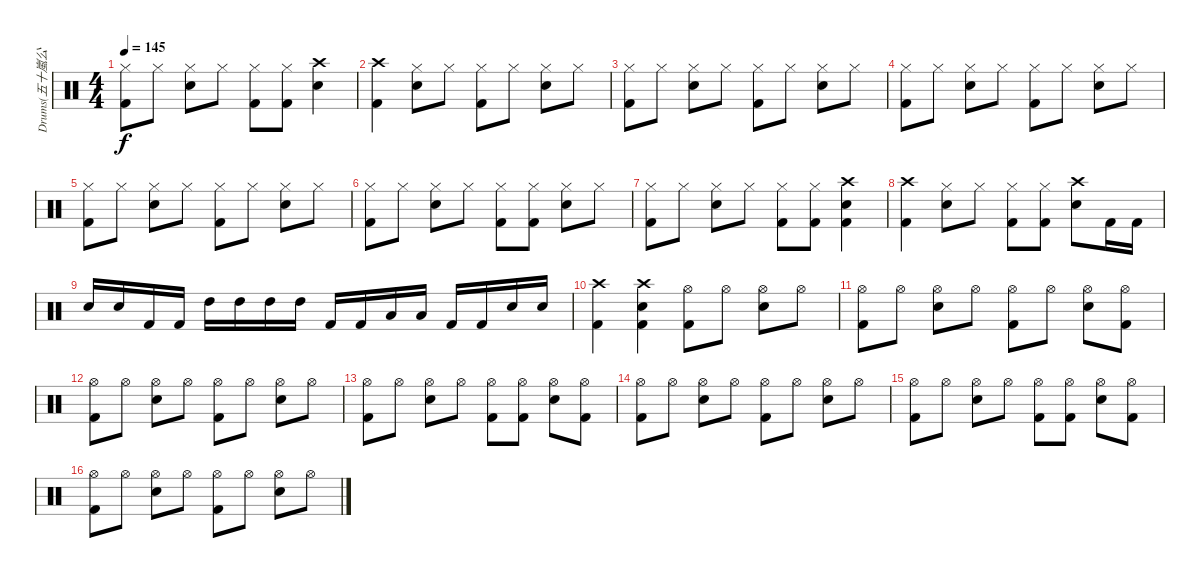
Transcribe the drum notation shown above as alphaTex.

\track ("Drums(五十嵐公太)" "Drums(五十嵐公") {instrument percussion}
\staff {score}
\articulation defaults
\ts (4 4)
\tempo 145
\clef neutral
\ks c
("Hi-Hat (closed)" "Kick (hit) 2").8{dy f} "Hi-Hat (closed)".8 ("Hi-Hat (closed)" "Snare (hit) 2").8 "Hi-Hat (closed)".8 ("Hi-Hat (closed)" "Kick (hit) 2").8 ("Hi-Hat (closed)" "Kick (hit) 2").8 ("Crash high (hit)" "Snare (hit) 2").4 |
("Crash high (hit)" "Kick (hit) 2").4 ("Hi-Hat (closed)" "Snare (hit) 2").8 "Hi-Hat (closed)".8 ("Hi-Hat (closed)" "Kick (hit) 2").8 "Hi-Hat (closed)".8 ("Hi-Hat (closed)" "Snare (hit) 2").8 "Hi-Hat (closed)".8 |
("Hi-Hat (closed)" "Kick (hit) 2").8 "Hi-Hat (closed)".8 ("Hi-Hat (closed)" "Snare (hit) 2").8 "Hi-Hat (closed)".8 ("Hi-Hat (closed)" "Kick (hit) 2").8 "Hi-Hat (closed)".8 ("Hi-Hat (closed)" "Snare (hit) 2").8 "Hi-Hat (closed)".8 |
("Hi-Hat (closed)" "Kick (hit) 2").8 "Hi-Hat (closed)".8 ("Hi-Hat (closed)" "Snare (hit) 2").8 "Hi-Hat (closed)".8 ("Hi-Hat (closed)" "Kick (hit) 2").8 "Hi-Hat (closed)".8 ("Hi-Hat (closed)" "Snare (hit) 2").8 "Hi-Hat (closed)".8 |
("Hi-Hat (closed)" "Kick (hit) 2").8 "Hi-Hat (closed)".8 ("Hi-Hat (closed)" "Snare (hit) 2").8 "Hi-Hat (closed)".8 ("Hi-Hat (closed)" "Kick (hit) 2").8 "Hi-Hat (closed)".8 ("Hi-Hat (closed)" "Snare (hit) 2").8 "Hi-Hat (closed)".8 |
("Hi-Hat (closed)" "Kick (hit) 2").8 "Hi-Hat (closed)".8 ("Hi-Hat (closed)" "Snare (hit) 2").8 "Hi-Hat (closed)".8 ("Hi-Hat (closed)" "Kick (hit) 2").8 ("Hi-Hat (closed)" "Kick (hit) 2").8 ("Hi-Hat (closed)" "Snare (hit) 2").8 "Hi-Hat (closed)".8 |
("Hi-Hat (closed)" "Kick (hit) 2").8 "Hi-Hat (closed)".8 ("Hi-Hat (closed)" "Snare (hit) 2").8 "Hi-Hat (closed)".8 ("Hi-Hat (closed)" "Kick (hit) 2").8 ("Hi-Hat (closed)" "Kick (hit) 2").8 ("Crash high (hit)" "Snare (hit) 2" "Kick (hit) 2").4 |
("Crash high (hit)" "Kick (hit) 2").4 ("Hi-Hat (closed)" "Snare (hit) 2").8 "Hi-Hat (closed)".8 ("Hi-Hat (closed)" "Kick (hit) 2").8 ("Hi-Hat (closed)" "Kick (hit) 2").8 ("Crash high (hit)" "Snare (hit) 2").8 "Kick (hit) 2".16 "Kick (hit) 2".16 |
"Snare (hit) 2".16 "Snare (hit) 2".16 "Kick (hit) 2".16 "Kick (hit) 2".16 "High Tom (hit)".16 "High Tom (hit)".16 "High Tom (hit)".16 "High Tom (hit)".16 "Kick (hit) 2".16 "Kick (hit) 2".16 "Low Tom (hit)".16 "Low Tom (hit)".16 "Kick (hit) 2".16 "Kick (hit) 2".16 "Snare (hit) 2".16 "Snare (hit) 2".16 |
("Crash high (hit)" "Kick (hit) 2").4 ("Crash high (hit)" "Snare (hit) 2" "Kick (hit) 2").4 ("Hi-Hat (open)" "Kick (hit) 2").8 "Hi-Hat (open)".8 ("Hi-Hat (open)" "Snare (hit) 2").8 "Hi-Hat (open)".8 |
("Hi-Hat (open)" "Kick (hit) 2").8 "Hi-Hat (open)".8 ("Hi-Hat (open)" "Snare (hit) 2").8 "Hi-Hat (open)".8 ("Hi-Hat (open)" "Kick (hit) 2").8 "Hi-Hat (open)".8 ("Hi-Hat (open)" "Snare (hit) 2").8 ("Hi-Hat (open)" "Kick (hit) 2").8 |
("Hi-Hat (open)" "Kick (hit) 2").8 "Hi-Hat (open)".8 ("Hi-Hat (open)" "Snare (hit) 2").8 "Hi-Hat (open)".8 ("Hi-Hat (open)" "Kick (hit) 2").8 "Hi-Hat (open)".8 ("Hi-Hat (open)" "Snare (hit) 2").8 "Hi-Hat (open)".8 |
("Hi-Hat (open)" "Kick (hit) 2").8 "Hi-Hat (open)".8 ("Hi-Hat (open)" "Snare (hit) 2").8 "Hi-Hat (open)".8 ("Hi-Hat (open)" "Kick (hit) 2").8 ("Hi-Hat (open)" "Kick (hit) 2").8 ("Hi-Hat (open)" "Snare (hit) 2").8 ("Hi-Hat (open)" "Kick (hit) 2").8 |
("Hi-Hat (open)" "Kick (hit) 2").8 "Hi-Hat (open)".8 ("Hi-Hat (open)" "Snare (hit) 2").8 "Hi-Hat (open)".8 ("Hi-Hat (open)" "Kick (hit) 2").8 "Hi-Hat (open)".8 ("Hi-Hat (open)" "Snare (hit) 2").8 "Hi-Hat (open)".8 |
("Hi-Hat (open)" "Kick (hit) 2").8 "Hi-Hat (open)".8 ("Hi-Hat (open)" "Snare (hit) 2").8 "Hi-Hat (open)".8 ("Hi-Hat (open)" "Kick (hit) 2").8 ("Hi-Hat (open)" "Kick (hit) 2").8 ("Hi-Hat (open)" "Snare (hit) 2").8 ("Hi-Hat (open)" "Kick (hit) 2").8 |
("Hi-Hat (open)" "Kick (hit) 2").8 "Hi-Hat (open)".8 ("Hi-Hat (open)" "Snare (hit) 2").8 "Hi-Hat (open)".8 ("Hi-Hat (open)" "Kick (hit) 2").8 "Hi-Hat (open)".8 ("Hi-Hat (open)" "Snare (hit) 2").8 "Hi-Hat (open)".8
